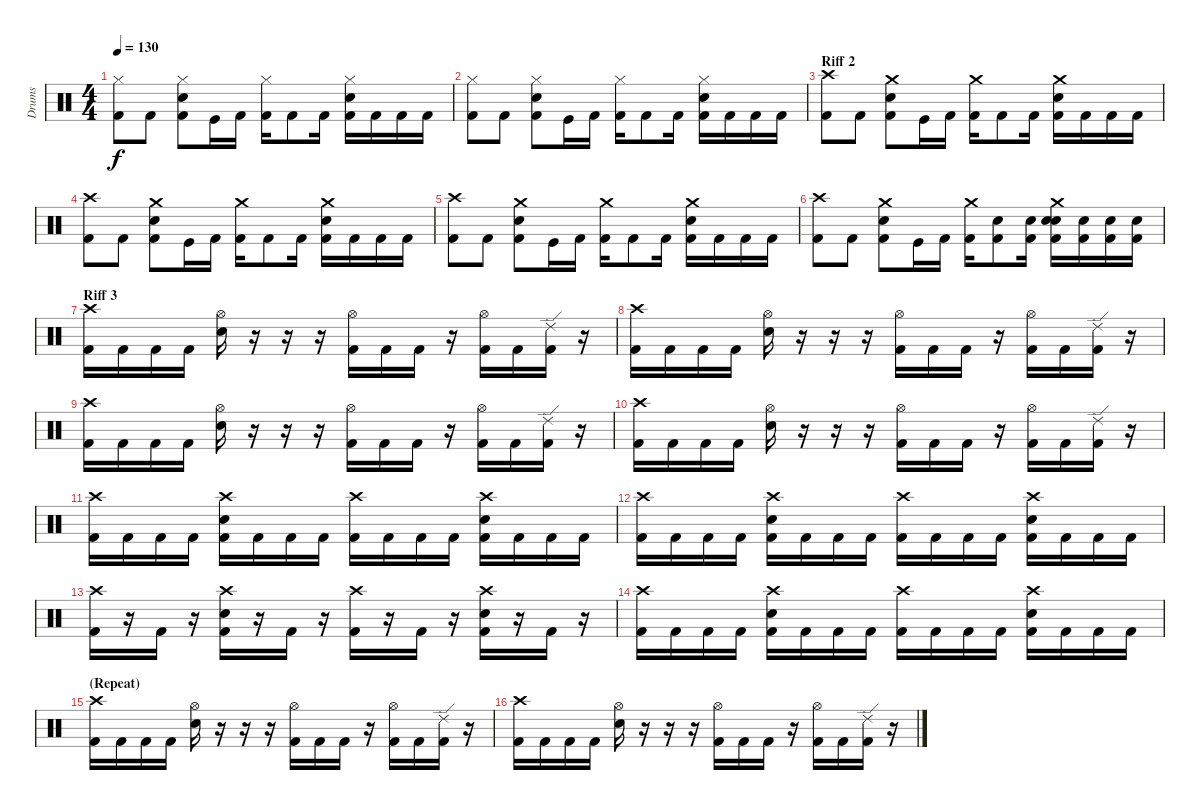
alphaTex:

\track ("Drums" "Drums") {instrument percussion}
\staff {score}
\articulation defaults
\ts (4 4)
\tempo 130
\clef neutral
\ks c
("Hi-Hat (closed)" "Kick (hit) 2").8{dy f} "Kick (hit) 2".8 ("Hi-Hat (closed)" "Electric Snare (hit)" "Kick (hit) 2").8 "Kick (hit)".16 "Kick (hit) 2".16 ("Hi-Hat (closed)" "Kick (hit) 2").16 "Kick (hit) 2".8 "Kick (hit) 2".16 ("Hi-Hat (closed)" "Electric Snare (hit)" "Kick (hit) 2").16 "Kick (hit) 2".16 "Kick (hit) 2".16 "Kick (hit) 2".16 |
("Hi-Hat (closed)" "Kick (hit) 2").8 "Kick (hit) 2".8 ("Hi-Hat (closed)" "Electric Snare (hit)" "Kick (hit) 2").8 "Kick (hit)".16 "Kick (hit) 2".16 ("Hi-Hat (closed)" "Kick (hit) 2").16 "Kick (hit) 2".8 "Kick (hit) 2".16 ("Hi-Hat (closed)" "Electric Snare (hit)" "Kick (hit) 2").16 "Kick (hit) 2".16 "Kick (hit) 2".16 "Kick (hit) 2".16 |
\section ("" "Riff 2")
("Crash high (hit)" "Kick (hit) 2").8 "Kick (hit) 2".8 ("Crash medium (hit)" "Electric Snare (hit)" "Kick (hit) 2").8 "Kick (hit)".16 "Kick (hit) 2".16 ("Crash medium (hit)" "Kick (hit) 2").16 "Kick (hit) 2".8 "Kick (hit) 2".16 ("Crash medium (hit)" "Electric Snare (hit)" "Kick (hit) 2").16 "Kick (hit) 2".16 "Kick (hit) 2".16 "Kick (hit) 2".16 |
("Crash high (hit)" "Kick (hit) 2").8 "Kick (hit) 2".8 ("Crash medium (hit)" "Electric Snare (hit)" "Kick (hit) 2").8 "Kick (hit)".16 "Kick (hit) 2".16 ("Crash medium (hit)" "Kick (hit) 2").16 "Kick (hit) 2".8 "Kick (hit) 2".16 ("Crash medium (hit)" "Electric Snare (hit)" "Kick (hit) 2").16 "Kick (hit) 2".16 "Kick (hit) 2".16 "Kick (hit) 2".16 |
("Crash high (hit)" "Kick (hit) 2").8 "Kick (hit) 2".8 ("Crash medium (hit)" "Electric Snare (hit)" "Kick (hit) 2").8 "Kick (hit)".16 "Kick (hit) 2".16 ("Crash medium (hit)" "Kick (hit) 2").16 "Kick (hit) 2".8 "Kick (hit) 2".16 ("Crash medium (hit)" "Electric Snare (hit)" "Kick (hit) 2").16 "Kick (hit) 2".16 "Kick (hit) 2".16 "Kick (hit) 2".16 |
("Crash high (hit)" "Kick (hit) 2").8 "Kick (hit) 2".8 ("Crash medium (hit)" "Electric Snare (hit)" "Kick (hit) 2").8 "Kick (hit)".16 "Kick (hit) 2".16 ("Crash medium (hit)" "Kick (hit) 2").16 ("Electric Snare (hit)" "Kick (hit) 2").8 ("Electric Snare (hit)" "Kick (hit) 2").16 ("Crash medium (hit)" "Electric Snare (hit)" "Electric Snare (hit)" "Kick (hit) 2").16 ("Electric Snare (hit)" "Kick (hit) 2").16 ("Electric Snare (hit)" "Kick (hit) 2").16 ("Electric Snare (hit)" "Kick (hit) 2").16 |
\section ("" "Riff 3")
("Crash high (hit)" "Kick (hit) 2").16 "Kick (hit) 2".16 "Kick (hit) 2".16 "Kick (hit) 2".16 ("Hi-Hat (open)" "Electric Snare (hit)").16 r.16 r.16 r.16 ("Hi-Hat (open)" "Kick (hit) 2").16 "Kick (hit) 2".16 "Kick (hit) 2".16 r.16 ("Hi-Hat (open)" "Kick (hit) 2").16 "Kick (hit) 2".16 ("Ride (edge) 2" "Kick (hit) 2").16 r.16 |
("Crash high (hit)" "Kick (hit) 2").16 "Kick (hit) 2".16 "Kick (hit) 2".16 "Kick (hit) 2".16 ("Hi-Hat (open)" "Electric Snare (hit)").16 r.16 r.16 r.16 ("Hi-Hat (open)" "Kick (hit) 2").16 "Kick (hit) 2".16 "Kick (hit) 2".16 r.16 ("Hi-Hat (open)" "Kick (hit) 2").16 "Kick (hit) 2".16 ("Ride (edge) 2" "Kick (hit) 2").16 r.16 |
("Crash high (hit)" "Kick (hit) 2").16 "Kick (hit) 2".16 "Kick (hit) 2".16 "Kick (hit) 2".16 ("Hi-Hat (open)" "Electric Snare (hit)").16 r.16 r.16 r.16 ("Hi-Hat (open)" "Kick (hit) 2").16 "Kick (hit) 2".16 "Kick (hit) 2".16 r.16 ("Hi-Hat (open)" "Kick (hit) 2").16 "Kick (hit) 2".16 ("Ride (edge) 2" "Kick (hit) 2").16 r.16 |
("Crash high (hit)" "Kick (hit) 2").16 "Kick (hit) 2".16 "Kick (hit) 2".16 "Kick (hit) 2".16 ("Hi-Hat (open)" "Electric Snare (hit)").16 r.16 r.16 r.16 ("Hi-Hat (open)" "Kick (hit) 2").16 "Kick (hit) 2".16 "Kick (hit) 2".16 r.16 ("Hi-Hat (open)" "Kick (hit) 2").16 "Kick (hit) 2".16 ("Ride (edge) 2" "Kick (hit) 2").16 r.16 |
("Crash high (hit)" "Kick (hit) 2").16 "Kick (hit) 2".16 "Kick (hit) 2".16 "Kick (hit) 2".16 ("Crash high (hit)" "Electric Snare (hit)" "Kick (hit) 2").16 "Kick (hit) 2".16 "Kick (hit) 2".16 "Kick (hit) 2".16 ("Crash high (hit)" "Kick (hit) 2").16 "Kick (hit) 2".16 "Kick (hit) 2".16 "Kick (hit) 2".16 ("Crash high (hit)" "Electric Snare (hit)" "Kick (hit) 2").16 "Kick (hit) 2".16 "Kick (hit) 2".16 "Kick (hit) 2".16 |
("Crash high (hit)" "Kick (hit) 2").16 "Kick (hit) 2".16 "Kick (hit) 2".16 "Kick (hit) 2".16 ("Crash high (hit)" "Electric Snare (hit)" "Kick (hit) 2").16 "Kick (hit) 2".16 "Kick (hit) 2".16 "Kick (hit) 2".16 ("Crash high (hit)" "Kick (hit) 2").16 "Kick (hit) 2".16 "Kick (hit) 2".16 "Kick (hit) 2".16 ("Crash high (hit)" "Electric Snare (hit)" "Kick (hit) 2").16 "Kick (hit) 2".16 "Kick (hit) 2".16 "Kick (hit) 2".16 |
("Crash high (hit)" "Kick (hit) 2").16 r.16 "Kick (hit) 2".16 r.16 ("Crash high (hit)" "Electric Snare (hit)" "Kick (hit) 2").16 r.16 "Kick (hit) 2".16 r.16 ("Crash high (hit)" "Kick (hit) 2").16 r.16 "Kick (hit) 2".16 r.16 ("Crash high (hit)" "Electric Snare (hit)" "Kick (hit) 2").16 r.16 "Kick (hit) 2".16 r.16 |
("Crash high (hit)" "Kick (hit) 2").16 "Kick (hit) 2".16 "Kick (hit) 2".16 "Kick (hit) 2".16 ("Crash high (hit)" "Electric Snare (hit)" "Kick (hit) 2").16 "Kick (hit) 2".16 "Kick (hit) 2".16 "Kick (hit) 2".16 ("Crash high (hit)" "Kick (hit) 2").16 "Kick (hit) 2".16 "Kick (hit) 2".16 "Kick (hit) 2".16 ("Crash high (hit)" "Electric Snare (hit)" "Kick (hit) 2").16 "Kick (hit) 2".16 "Kick (hit) 2".16 "Kick (hit) 2".16 |
\section ("" "(Repeat)")
("Crash high (hit)" "Kick (hit) 2").16 "Kick (hit) 2".16 "Kick (hit) 2".16 "Kick (hit) 2".16 ("Hi-Hat (open)" "Electric Snare (hit)").16 r.16 r.16 r.16 ("Hi-Hat (open)" "Kick (hit) 2").16 "Kick (hit) 2".16 "Kick (hit) 2".16 r.16 ("Hi-Hat (open)" "Kick (hit) 2").16 "Kick (hit) 2".16 ("Ride (edge) 2" "Kick (hit) 2").16 r.16 |
("Crash high (hit)" "Kick (hit) 2").16 "Kick (hit) 2".16 "Kick (hit) 2".16 "Kick (hit) 2".16 ("Hi-Hat (open)" "Electric Snare (hit)").16 r.16 r.16 r.16 ("Hi-Hat (open)" "Kick (hit) 2").16 "Kick (hit) 2".16 "Kick (hit) 2".16 r.16 ("Hi-Hat (open)" "Kick (hit) 2").16 "Kick (hit) 2".16 ("Ride (edge) 2" "Kick (hit) 2").16 r.16
